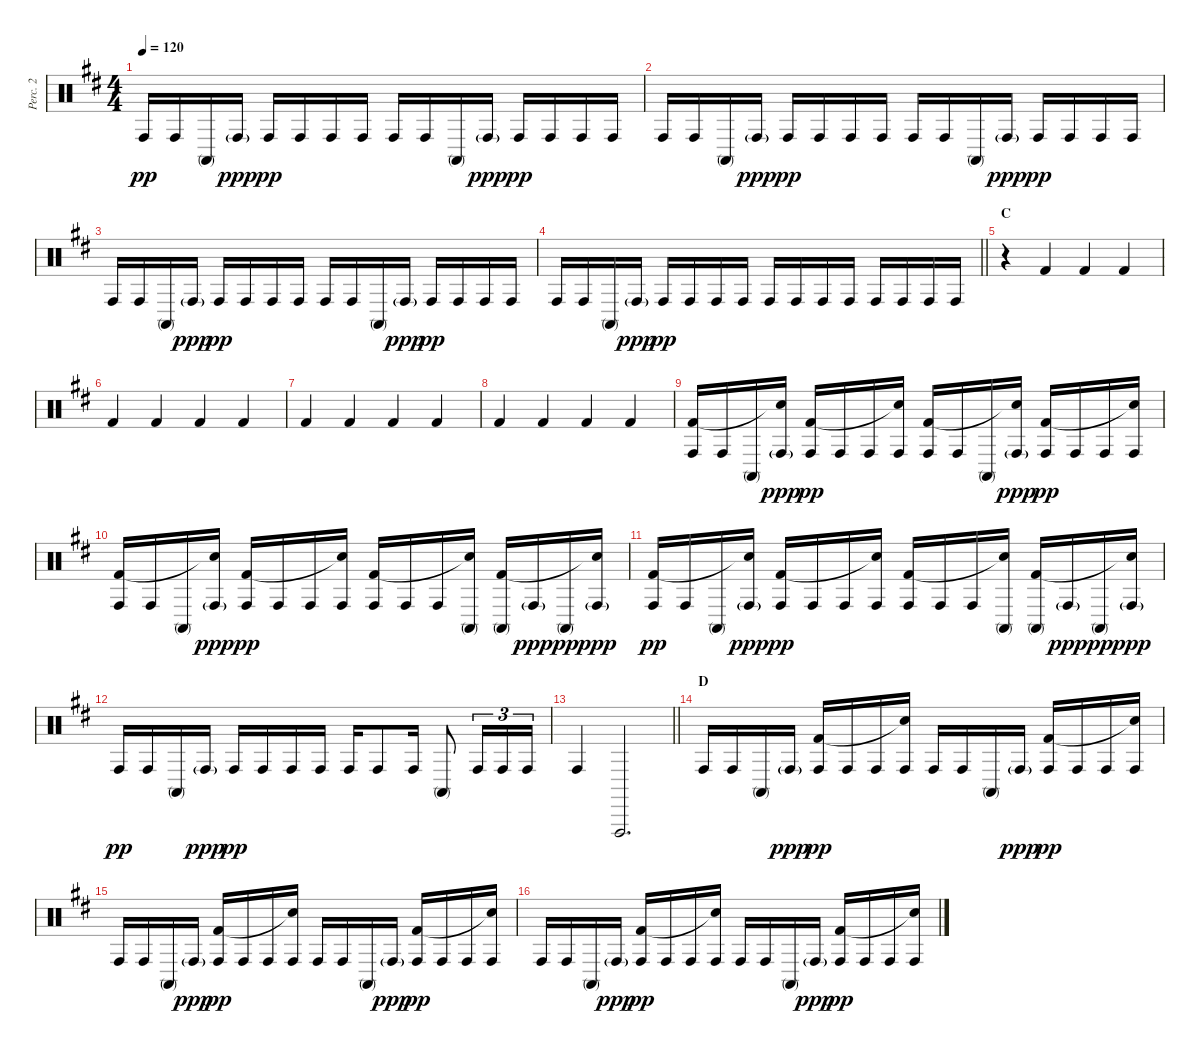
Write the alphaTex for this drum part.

\track ("Perc. 2" "Perc. 2") {instrument percussion}
\staff {score}
\articulation defaults
\ts (4 4)
\tempo 120
\clef neutral
\ks d "Conga high (hit)".16{dy pp} "Conga high (hit)".16 "Conga high (mute)".16 "Conga high (hit)"{g}.16{dy ppp} "Conga high (hit)".16{dy pp} "Conga high (hit)".16 "Conga high (hit)".16 "Conga high (hit)".16 "Conga high (hit)".16 "Conga high (hit)".16 "Conga high (mute)".16 "Conga high (hit)"{g}.16{dy ppp} "Conga high (hit)".16{dy pp} "Conga high (hit)".16 "Conga high (hit)".16 "Conga high (hit)".16
|
"Conga high (hit)".16 "Conga high (hit)".16 "Conga high (mute)".16 "Conga high (hit)"{g}.16{dy ppp} "Conga high (hit)".16{dy pp} "Conga high (hit)".16 "Conga high (hit)".16 "Conga high (hit)".16 "Conga high (hit)".16 "Conga high (hit)".16 "Conga high (mute)".16 "Conga high (hit)"{g}.16{dy ppp} "Conga high (hit)".16{dy pp} "Conga high (hit)".16 "Conga high (hit)".16 "Conga high (hit)".16 |
"Conga high (hit)".16 "Conga high (hit)".16 "Conga high (mute)".16 "Conga high (hit)"{g}.16{dy ppp} "Conga high (hit)".16{dy pp} "Conga high (hit)".16 "Conga high (hit)".16 "Conga high (hit)".16 "Conga high (hit)".16 "Conga high (hit)".16 "Conga high (mute)".16 "Conga high (hit)"{g}.16{dy ppp} "Conga high (hit)".16{dy pp} "Conga high (hit)".16 "Conga high (hit)".16 "Conga high (hit)".16 |
\barLineRight lightlight "Conga high (hit)".16 "Conga high (hit)".16 "Conga high (mute)".16 "Conga high (hit)"{g}.16{dy ppp} "Conga high (hit)".16{dy pp} "Conga high (hit)".16 "Conga high (hit)".16 "Conga high (hit)".16 "Conga high (hit)".16 "Conga high (hit)".16 "Conga high (hit)".16 "Conga high (hit)".16 "Conga high (hit)".16 "Conga high (hit)".16 "Conga high (hit)".16 "Conga high (hit)".16
|
\section ("" "C")
r.4 "Kick (hit) 2".4 "Kick (hit) 2".4 "Kick (hit) 2".4 |
"Kick (hit) 2".4 "Kick (hit) 2".4 "Kick (hit) 2".4 "Kick (hit) 2".4 |
"Kick (hit) 2".4 "Kick (hit) 2".4 "Kick (hit) 2".4 "Kick (hit) 2".4 |
"Kick (hit) 2".4 "Kick (hit) 2".4 "Kick (hit) 2".4 "Kick (hit) 2".4 |
("Conga high (hit)" "Kick (hit) 2").16 "Conga high (hit)".16 "Conga high (mute)".16 ("Conga high (hit)"{g} "Snare (hit)"{t}).16{dy ppp} ("Conga high (hit)" "Kick (hit) 2").16{dy pp} "Conga high (hit)".16 "Conga high (hit)".16 ("Conga high (hit)" "Snare (hit)"{t}).16 ("Conga high (hit)" "Kick (hit) 2").16 "Conga high (hit)".16 "Conga high (mute)".16 ("Conga high (hit)"{g} "Snare (hit)"{t}).16{dy ppp} ("Conga high (hit)" "Kick (hit) 2").16{dy pp} "Conga high (hit)".16 "Conga high (hit)".16 ("Conga high (hit)" "Snare (hit)"{t}).16 |
("Conga high (hit)" "Kick (hit) 2").16 "Conga high (hit)".16 "Conga high (mute)".16 ("Conga high (hit)"{g} "Snare (hit)"{t}).16{dy ppp} ("Conga high (hit)" "Kick (hit) 2").16{dy pp} "Conga high (hit)".16 "Conga high (hit)".16 ("Conga high (hit)" "Snare (hit)"{t}).16 ("Conga high (hit)" "Kick (hit) 2").16 "Conga high (hit)".16 "Conga high (hit)".16 ("Conga high (mute)" "Snare (hit)"{t}).16 ("Conga high (mute)" "Kick (hit) 2").16 "Conga high (hit)"{g}.16{dy ppp} "Conga high (mute)".16{dy pp} ("Conga high (hit)"{g} "Snare (hit)"{t}).16{dy ppp} |
("Conga high (hit)" "Kick (hit) 2").16{dy pp} "Conga high (hit)".16 "Conga high (mute)".16 ("Conga high (hit)"{g} "Snare (hit)"{t}).16{dy ppp} ("Conga high (hit)" "Kick (hit) 2").16{dy pp} "Conga high (hit)".16 "Conga high (hit)".16 ("Conga high (hit)" "Snare (hit)"{t}).16 ("Conga high (hit)" "Kick (hit) 2").16 "Conga high (hit)".16 "Conga high (hit)".16 ("Conga high (mute)" "Snare (hit)"{t}).16 ("Conga high (mute)" "Kick (hit) 2").16 "Conga high (hit)"{g}.16{dy ppp} "Conga high (mute)".16{dy pp} ("Conga high (hit)"{g} "Snare (hit)"{t}).16{dy ppp} |
"Conga high (hit)".16{dy pp} "Conga high (hit)".16 "Conga high (mute)".16 "Conga high (hit)"{g}.16{dy ppp} "Conga high (hit)".16{dy pp} "Conga high (hit)".16 "Conga high (hit)".16 "Conga high (hit)".16 "Conga high (hit)".16 "Conga high (hit)".8 "Conga high (hit)".16 "Conga high (mute)".8 "Conga high (hit)".16{tu (3 2)} "Conga high (hit)".16{tu (3 2)} "Conga high (hit)".16{tu (3 2)} |
\barLineRight lightlight "Conga high (hit)".4 "Vibraslap (hit)".2{d}
|
\section ("" "D")
"Conga high (hit)".16 "Conga high (hit)".16 "Conga high (mute)".16 "Conga high (hit)"{g}.16{dy ppp} ("Conga high (hit)" "Kick (hit) 2").16{dy pp} "Conga high (hit)".16 "Conga high (hit)".16 ("Conga high (hit)" "Snare (hit)"{t}).16 "Conga high (hit)".16 "Conga high (hit)".16 "Conga high (mute)".16 "Conga high (hit)"{g}.16{dy ppp} ("Conga high (hit)" "Kick (hit) 2").16{dy pp} "Conga high (hit)".16 "Conga high (hit)".16 ("Conga high (hit)" "Snare (hit)"{t}).16 |
"Conga high (hit)".16 "Conga high (hit)".16 "Conga high (mute)".16 "Conga high (hit)"{g}.16{dy ppp} ("Conga high (hit)" "Kick (hit) 2").16{dy pp} "Conga high (hit)".16 "Conga high (hit)".16 ("Conga high (hit)" "Snare (hit)"{t}).16 "Conga high (hit)".16 "Conga high (hit)".16 "Conga high (mute)".16 "Conga high (hit)"{g}.16{dy ppp} ("Conga high (hit)" "Kick (hit) 2").16{dy pp} "Conga high (hit)".16 "Conga high (hit)".16 ("Conga high (hit)" "Snare (hit)"{t}).16 |
"Conga high (hit)".16 "Conga high (hit)".16 "Conga high (mute)".16 "Conga high (hit)"{g}.16{dy ppp} ("Conga high (hit)" "Kick (hit) 2").16{dy pp} "Conga high (hit)".16 "Conga high (hit)".16 ("Conga high (hit)" "Snare (hit)"{t}).16 "Conga high (hit)".16 "Conga high (hit)".16 "Conga high (mute)".16 "Conga high (hit)"{g}.16{dy ppp} ("Conga high (hit)" "Kick (hit) 2").16{dy pp} "Conga high (hit)".16 "Conga high (hit)".16 ("Conga high (hit)" "Snare (hit)"{t}).16
